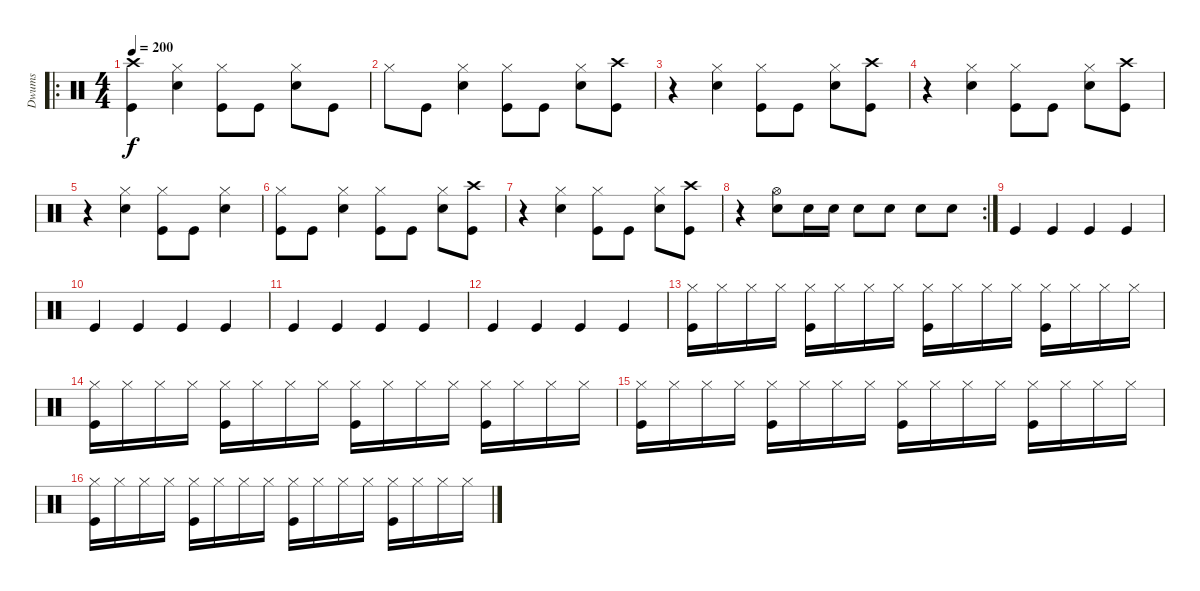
\track ("Dwums" "Dwums") {instrument percussion}
\staff {score}
\articulation defaults
\ro
\ts (4 4)
\tempo 200
\clef neutral
\ks c
("Kick (hit)" "Crash high (hit)").4{dy f} ("Snare (hit) 2" "Hi-Hat (closed)").4 ("Hi-Hat (closed)" "Kick (hit)").8 "Kick (hit)".8 ("Hi-Hat (closed)" "Snare (hit) 2").8 "Kick (hit)".8 |
"Hi-Hat (closed)".8 "Kick (hit)".8 ("Snare (hit) 2" "Hi-Hat (closed)").4 ("Hi-Hat (closed)" "Kick (hit)").8 "Kick (hit)".8 ("Hi-Hat (closed)" "Snare (hit) 2").8 ("Kick (hit)" "Crash high (hit)").8 |
r.4 ("Hi-Hat (closed)" "Snare (hit) 2").4 ("Hi-Hat (closed)" "Kick (hit)").8 "Kick (hit)".8 ("Snare (hit) 2" "Hi-Hat (closed)").8 ("Kick (hit)" "Crash high (hit)").8 |
r.4 ("Hi-Hat (closed)" "Snare (hit) 2").4 ("Hi-Hat (closed)" "Kick (hit)").8 "Kick (hit)".8 ("Snare (hit) 2" "Hi-Hat (closed)").8 ("Kick (hit)" "Crash high (hit)").8 |
r.4 ("Snare (hit) 2" "Hi-Hat (closed)").4 ("Hi-Hat (closed)" "Kick (hit)").8 "Kick (hit)".8 ("Snare (hit) 2" "Hi-Hat (closed)").4 |
("Hi-Hat (closed)" "Kick (hit)").8 "Kick (hit)".8 ("Snare (hit) 2" "Hi-Hat (closed)").4 ("Hi-Hat (closed)" "Kick (hit)").8 "Kick (hit)".8 ("Snare (hit) 2" "Hi-Hat (closed)").8 ("Kick (hit)" "Crash high (hit)").8 |
r.4 ("Hi-Hat (closed)" "Snare (hit) 2").4 ("Hi-Hat (closed)" "Kick (hit)").8 "Kick (hit)".8 ("Snare (hit) 2" "Hi-Hat (closed)").8 ("Kick (hit)" "Crash high (hit)").8 |
\rc 2
r.4 ("Snare (hit) 2" "Hi-Hat (open)").8 "Snare (hit) 2".16 "Snare (hit) 2".16 "Snare (hit) 2".8 "Snare (hit) 2".8 "Snare (hit) 2".8 "Snare (hit) 2".8 |
"Kick (hit)".4 "Kick (hit)".4 "Kick (hit)".4 "Kick (hit)".4 |
"Kick (hit)".4 "Kick (hit)".4 "Kick (hit)".4 "Kick (hit)".4 |
"Kick (hit)".4 "Kick (hit)".4 "Kick (hit)".4 "Kick (hit)".4 |
"Kick (hit)".4 "Kick (hit)".4 "Kick (hit)".4 "Kick (hit)".4 |
("Kick (hit)" "Hi-Hat (closed)").16 "Hi-Hat (closed)".16 "Hi-Hat (closed)".16 "Hi-Hat (closed)".16 ("Kick (hit)" "Hi-Hat (closed)").16 "Hi-Hat (closed)".16 "Hi-Hat (closed)".16 "Hi-Hat (closed)".16 ("Kick (hit)" "Hi-Hat (closed)").16 "Hi-Hat (closed)".16 "Hi-Hat (closed)".16 "Hi-Hat (closed)".16 ("Kick (hit)" "Hi-Hat (closed)").16 "Hi-Hat (closed)".16 "Hi-Hat (closed)".16 "Hi-Hat (closed)".16 |
("Kick (hit)" "Hi-Hat (closed)").16 "Hi-Hat (closed)".16 "Hi-Hat (closed)".16 "Hi-Hat (closed)".16 ("Kick (hit)" "Hi-Hat (closed)").16 "Hi-Hat (closed)".16 "Hi-Hat (closed)".16 "Hi-Hat (closed)".16 ("Kick (hit)" "Hi-Hat (closed)").16 "Hi-Hat (closed)".16 "Hi-Hat (closed)".16 "Hi-Hat (closed)".16 ("Kick (hit)" "Hi-Hat (closed)").16 "Hi-Hat (closed)".16 "Hi-Hat (closed)".16 "Hi-Hat (closed)".16 |
("Kick (hit)" "Hi-Hat (closed)").16 "Hi-Hat (closed)".16 "Hi-Hat (closed)".16 "Hi-Hat (closed)".16 ("Kick (hit)" "Hi-Hat (closed)").16 "Hi-Hat (closed)".16 "Hi-Hat (closed)".16 "Hi-Hat (closed)".16 ("Kick (hit)" "Hi-Hat (closed)").16 "Hi-Hat (closed)".16 "Hi-Hat (closed)".16 "Hi-Hat (closed)".16 ("Kick (hit)" "Hi-Hat (closed)").16 "Hi-Hat (closed)".16 "Hi-Hat (closed)".16 "Hi-Hat (closed)".16 |
("Kick (hit)" "Hi-Hat (closed)").16 "Hi-Hat (closed)".16 "Hi-Hat (closed)".16 "Hi-Hat (closed)".16 ("Kick (hit)" "Hi-Hat (closed)").16 "Hi-Hat (closed)".16 "Hi-Hat (closed)".16 "Hi-Hat (closed)".16 ("Kick (hit)" "Hi-Hat (closed)").16 "Hi-Hat (closed)".16 "Hi-Hat (closed)".16 "Hi-Hat (closed)".16 ("Kick (hit)" "Hi-Hat (closed)").16 "Hi-Hat (closed)".16 "Hi-Hat (closed)".16 "Hi-Hat (closed)".16
